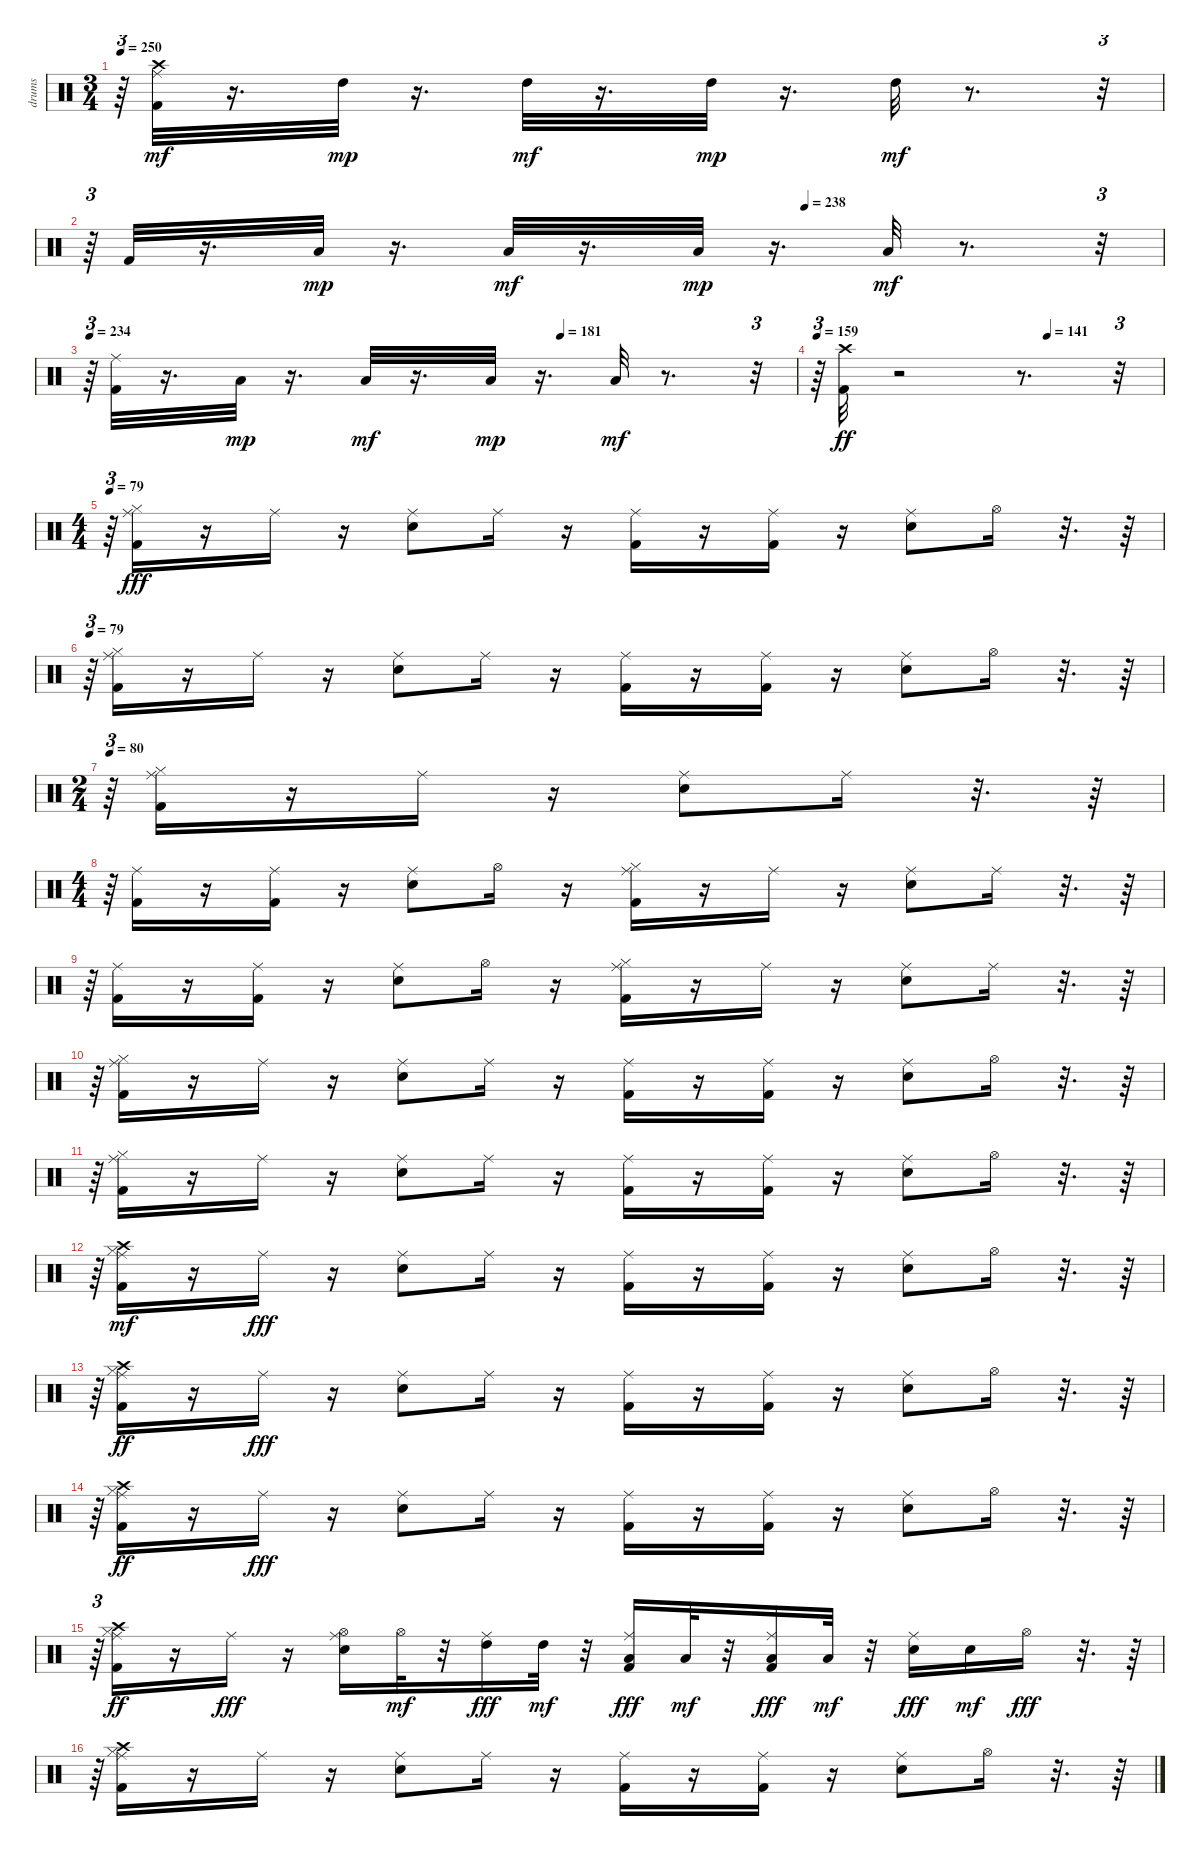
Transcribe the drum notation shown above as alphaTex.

\track ("drums               " "drums     ") {instrument percussion}
\staff {score}
\articulation defaults
\ts (3 4)
\tempo 250
\clef neutral
\ks c
r.64{tu (3 2) dy mf} ("Kick (hit) 2" "Crash high (hit)" "Ride (middle)").32 r.16{d} "High Tom (hit)".32{dy mp} r.16{d} "High Tom (hit)".32{dy mf} r.16{d} "High Tom (hit)".32{dy mp} r.16{d} "High Tom (hit)".32{dy mf} r.8{d} r.32{tu (3 2)} |
\tempo (238 0.6666666666666666)
r.64{tu (3 2)} "Kick (hit) 2".32 r.16{d} "Low Tom (hit)".32{dy mp} r.16{d} "Low Tom (hit)".32{dy mf} r.16{d} "Low Tom (hit)".32{dy mp} r.16{d} "Low Tom (hit)".32{dy mf} r.8{d} r.32{tu (3 2)} |
\tempo 234
\tempo (181 0.6666666666666666)
r.64{tu (3 2)} ("Kick (hit) 2" "Ride (middle)").32 r.16{d} "Low Floor Tom (hit)".32{dy mp} r.16{d} "Low Floor Tom (hit)".32{dy mf} r.16{d} "Low Floor Tom (hit)".32{dy mp} r.16{d} "Low Floor Tom (hit)".32{dy mf} r.8{d} r.32{tu (3 2)} |
\tempo 159
\tempo (141 0.6666666666666666)
r.64{tu (3 2)} ("Kick (hit) 2" "Crash high (hit)").32{dy ff} r.2 r.8{d} r.32{tu (3 2)} |
\ts (4 4)
\tempo 79
r.64{tu (3 2)} ("Kick (hit) 2" "Ride (middle)" "Hi-Hat (closed)").16{dy fff} r.16 "Ride (middle)".16 r.16 ("Snare (hit) 2" "Ride (middle)").8 "Ride (middle)".16 r.16 ("Kick (hit) 2" "Ride (middle)").16 r.16 ("Kick (hit) 2" "Ride (middle)").16 r.16 ("Snare (hit) 2" "Ride (middle)").8 "Hi-Hat (open)".16 r.32{d} r.64 |
\tempo 79
r.64{tu (3 2)} ("Kick (hit) 2" "Ride (middle)" "Hi-Hat (closed)").16 r.16 "Ride (middle)".16 r.16 ("Snare (hit) 2" "Ride (middle)").8 "Ride (middle)".16 r.16 ("Kick (hit) 2" "Ride (middle)").16 r.16 ("Kick (hit) 2" "Ride (middle)").16 r.16 ("Snare (hit) 2" "Ride (middle)").8 "Hi-Hat (open)".16 r.32{d} r.64 |
\ts (2 4)
\tempo 80
r.64{tu (3 2)} ("Kick (hit) 2" "Ride (middle)" "Hi-Hat (closed)").16 r.16 "Ride (middle)".16 r.16 ("Snare (hit) 2" "Ride (middle)").8 "Ride (middle)".16 r.32{d} r.64 |
\ts (4 4)
r.64{tu (3 2)} ("Kick (hit) 2" "Ride (middle)").16 r.16 ("Kick (hit) 2" "Ride (middle)").16 r.16 ("Snare (hit) 2" "Ride (middle)").8 "Hi-Hat (open)".16 r.16 ("Kick (hit) 2" "Ride (middle)" "Hi-Hat (closed)").16 r.16 "Ride (middle)".16 r.16 ("Snare (hit) 2" "Ride (middle)").8 "Ride (middle)".16 r.32{d} r.64 |
r.64{tu (3 2)} ("Kick (hit) 2" "Ride (middle)").16 r.16 ("Kick (hit) 2" "Ride (middle)").16 r.16 ("Snare (hit) 2" "Ride (middle)").8 "Hi-Hat (open)".16 r.16 ("Kick (hit) 2" "Ride (middle)" "Hi-Hat (closed)").16 r.16 "Ride (middle)".16 r.16 ("Snare (hit) 2" "Ride (middle)").8 "Ride (middle)".16 r.32{d} r.64 |
r.64{tu (3 2)} ("Kick (hit) 2" "Ride (middle)" "Hi-Hat (closed)").16 r.16 "Ride (middle)".16 r.16 ("Snare (hit) 2" "Ride (middle)").8 "Ride (middle)".16 r.16 ("Kick (hit) 2" "Ride (middle)").16 r.16 ("Kick (hit) 2" "Ride (middle)").16 r.16 ("Snare (hit) 2" "Ride (middle)").8 "Hi-Hat (open)".16 r.32{d} r.64 |
r.64{tu (3 2)} ("Kick (hit) 2" "Ride (middle)" "Hi-Hat (closed)").16 r.16 "Ride (middle)".16 r.16 ("Snare (hit) 2" "Ride (middle)").8 "Ride (middle)".16 r.16 ("Kick (hit) 2" "Ride (middle)").16 r.16 ("Kick (hit) 2" "Ride (middle)").16 r.16 ("Snare (hit) 2" "Ride (middle)").8 "Hi-Hat (open)".16 r.32{d} r.64 |
r.64{tu (3 2)} ("Kick (hit) 2" "Ride (middle)" "Hi-Hat (closed)" "Crash high (hit)").16{dy mf} r.16 "Ride (middle)".16{dy fff} r.16 ("Snare (hit) 2" "Ride (middle)").8 "Ride (middle)".16 r.16 ("Kick (hit) 2" "Ride (middle)").16 r.16 ("Kick (hit) 2" "Ride (middle)").16 r.16 ("Snare (hit) 2" "Ride (middle)").8 "Hi-Hat (open)".16 r.32{d} r.64 |
r.64{tu (3 2)} ("Kick (hit) 2" "Ride (middle)" "Hi-Hat (closed)" "Crash high (hit)").16{dy ff} r.16 "Ride (middle)".16{dy fff} r.16 ("Snare (hit) 2" "Ride (middle)").8 "Ride (middle)".16 r.16 ("Kick (hit) 2" "Ride (middle)").16 r.16 ("Kick (hit) 2" "Ride (middle)").16 r.16 ("Snare (hit) 2" "Ride (middle)").8 "Hi-Hat (open)".16 r.32{d} r.64 |
r.64{tu (3 2)} ("Kick (hit) 2" "Ride (middle)" "Hi-Hat (closed)" "Crash high (hit)").16{dy ff} r.16 "Ride (middle)".16{dy fff} r.16 ("Snare (hit) 2" "Ride (middle)").8 "Ride (middle)".16 r.16 ("Kick (hit) 2" "Ride (middle)").16 r.16 ("Kick (hit) 2" "Ride (middle)").16 r.16 ("Snare (hit) 2" "Ride (middle)").8 "Hi-Hat (open)".16 r.32{d} r.64 |
r.64{tu (3 2)} ("Kick (hit) 2" "Ride (middle)" "Hi-Hat (closed)" "Crash high (hit)").16{dy ff} r.16 "Ride (middle)".16{dy fff} r.16 ("Snare (hit) 2" "Hi-Hat (open)" "Ride (middle)").16 "Hi-Hat (open)".32{dy mf} r.32 ("High Tom (hit)" "Ride (middle)").16{dy fff} "High Tom (hit)".32{dy mf} r.32 ("Kick (hit) 2" "Low Tom (hit)" "Ride (middle)").16{dy fff} "Low Tom (hit)".32{dy mf} r.32 ("Kick (hit) 2" "Low Floor Tom (hit)" "Ride (middle)").16{dy fff} "Low Floor Tom (hit)".32{dy mf} r.32 ("Snare (hit) 2" "Ride (middle)").16{dy fff} "Snare (hit) 2".16{dy mf} "Hi-Hat (open)".16{dy fff} r.32{d} r.64 |
r.64{tu (3 2)} ("Kick (hit) 2" "Ride (middle)" "Hi-Hat (closed)" "Crash high (hit)").16 r.16 "Ride (middle)".16 r.16 ("Snare (hit) 2" "Ride (middle)").8 "Ride (middle)".16 r.16 ("Kick (hit) 2" "Ride (middle)").16 r.16 ("Kick (hit) 2" "Ride (middle)").16 r.16 ("Snare (hit) 2" "Ride (middle)").8 "Hi-Hat (open)".16 r.32{d} r.64
